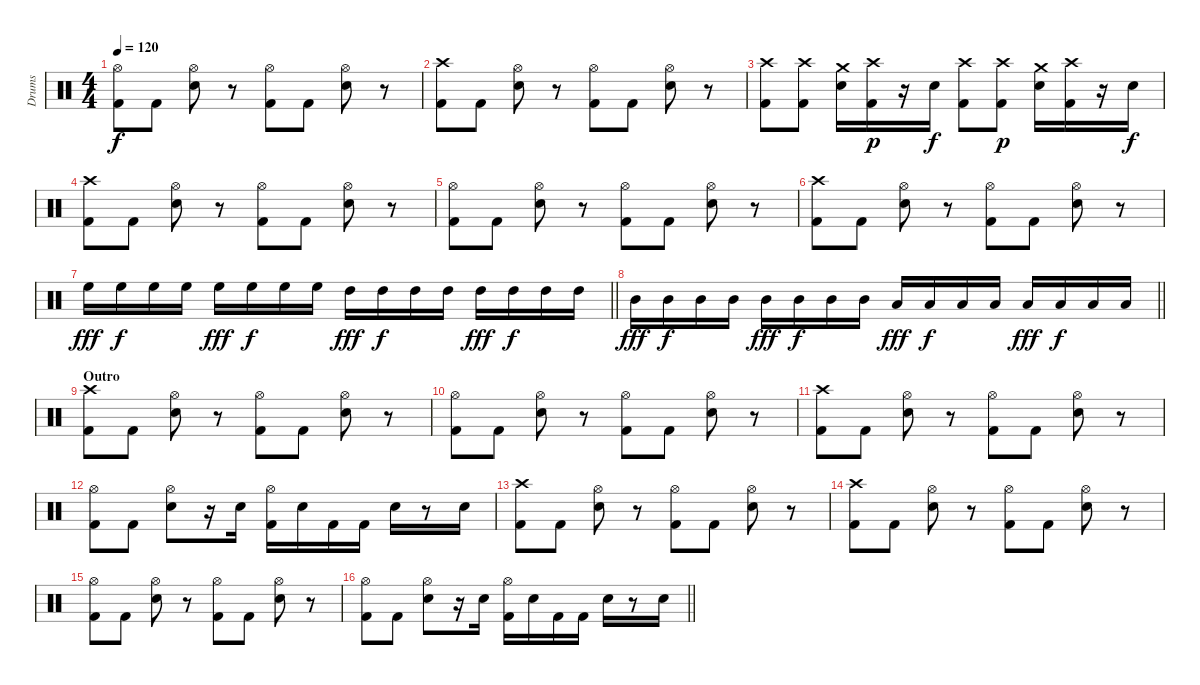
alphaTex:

\track ("Drums" "Drums") {instrument percussion}
\staff {score}
\articulation defaults
\ts (4 4)
\tempo 120
\clef neutral
\ks c
("Hi-Hat (open)" "Kick (hit) 2").8{dy f} "Kick (hit) 2".8 ("Hi-Hat (open)" "Snare (hit) 2").8 r.8 ("Hi-Hat (open)" "Kick (hit) 2").8 "Kick (hit) 2".8 ("Hi-Hat (open)" "Snare (hit) 2").8 r.8 |
("Crash high (hit)" "Kick (hit) 2").8 "Kick (hit) 2".8 ("Hi-Hat (open)" "Snare (hit) 2").8 r.8 ("Hi-Hat (open)" "Kick (hit) 2").8 "Kick (hit) 2".8 ("Hi-Hat (open)" "Snare (hit) 2").8 r.8 |
("Crash high (hit)" "Kick (hit) 2").8 ("Crash high (hit)" "Kick (hit) 2").8 ("Crash medium (hit)" "Snare (hit) 2").16 ("Crash high (hit)" "Kick (hit) 2").16{dy p} r.16 "Snare (hit) 2".16{dy f} ("Crash high (hit)" "Kick (hit) 2").8 ("Crash high (hit)" "Kick (hit) 2").8{dy p} ("Crash medium (hit)" "Snare (hit) 2").16 ("Crash high (hit)" "Kick (hit) 2").16 r.16 "Snare (hit) 2".16{dy f} |
("Crash high (hit)" "Kick (hit) 2").8 "Kick (hit) 2".8 ("Hi-Hat (open)" "Snare (hit) 2").8 r.8 ("Hi-Hat (open)" "Kick (hit) 2").8 "Kick (hit) 2".8 ("Hi-Hat (open)" "Snare (hit) 2").8 r.8 |
("Hi-Hat (open)" "Kick (hit) 2").8 "Kick (hit) 2".8 ("Hi-Hat (open)" "Snare (hit) 2").8 r.8 ("Hi-Hat (open)" "Kick (hit) 2").8 "Kick (hit) 2".8 ("Hi-Hat (open)" "Snare (hit) 2").8 r.8 |
("Crash high (hit)" "Kick (hit) 2").8 "Kick (hit) 2".8 ("Hi-Hat (open)" "Snare (hit) 2").8 r.8 ("Hi-Hat (open)" "Kick (hit) 2").8 "Kick (hit) 2".8 ("Hi-Hat (open)" "Snare (hit) 2").8 r.8 |
\barLineRight lightlight "High Floor Tom (hit)".16{dy fff} "High Floor Tom (hit)".16{dy f} "High Floor Tom (hit)".16 "High Floor Tom (hit)".16 "High Floor Tom (hit)".16{dy fff} "High Floor Tom (hit)".16{dy f} "High Floor Tom (hit)".16 "High Floor Tom (hit)".16 "High Tom (hit)".16{dy fff} "High Tom (hit)".16{dy f} "High Tom (hit)".16 "High Tom (hit)".16 "High Tom (hit)".16{dy fff} "High Tom (hit)".16{dy f} "High Tom (hit)".16 "High Tom (hit)".16
|
\barLineRight lightlight "Mid Tom (hit)".16{dy fff} "Mid Tom (hit)".16{dy f} "Mid Tom (hit)".16 "Mid Tom (hit)".16 "Mid Tom (hit)".16{dy fff} "Mid Tom (hit)".16{dy f} "Mid Tom (hit)".16 "Mid Tom (hit)".16 "Low Tom (hit)".16{dy fff} "Low Tom (hit)".16{dy f} "Low Tom (hit)".16 "Low Tom (hit)".16 "Low Tom (hit)".16{dy fff} "Low Tom (hit)".16{dy f} "Low Tom (hit)".16 "Low Tom (hit)".16
|
\section ("" "Outro")
("Crash high (hit)" "Kick (hit) 2").8 "Kick (hit) 2".8 ("Hi-Hat (open)" "Snare (hit) 2").8 r.8 ("Hi-Hat (open)" "Kick (hit) 2").8 "Kick (hit) 2".8 ("Hi-Hat (open)" "Snare (hit) 2").8 r.8 |
("Hi-Hat (open)" "Kick (hit) 2").8 "Kick (hit) 2".8 ("Hi-Hat (open)" "Snare (hit) 2").8 r.8 ("Hi-Hat (open)" "Kick (hit) 2").8 "Kick (hit) 2".8 ("Hi-Hat (open)" "Snare (hit) 2").8 r.8 |
("Crash high (hit)" "Kick (hit) 2").8 "Kick (hit) 2".8 ("Hi-Hat (open)" "Snare (hit) 2").8 r.8 ("Hi-Hat (open)" "Kick (hit) 2").8 "Kick (hit) 2".8 ("Hi-Hat (open)" "Snare (hit) 2").8 r.8 |
("Hi-Hat (open)" "Kick (hit) 2").8 "Kick (hit) 2".8 ("Hi-Hat (open)" "Snare (hit) 2").8 r.16 "Snare (hit) 2".16 ("Hi-Hat (open)" "Kick (hit) 2").16 "Snare (hit) 2".16 "Kick (hit) 2".16 "Kick (hit) 2".16 "Snare (hit) 2".16 r.8 "Snare (hit) 2".16 |
("Crash high (hit)" "Kick (hit) 2").8 "Kick (hit) 2".8 ("Hi-Hat (open)" "Snare (hit) 2").8 r.8 ("Hi-Hat (open)" "Kick (hit) 2").8 "Kick (hit) 2".8 ("Hi-Hat (open)" "Snare (hit) 2").8 r.8 |
("Crash high (hit)" "Kick (hit) 2").8 "Kick (hit) 2".8 ("Hi-Hat (open)" "Snare (hit) 2").8 r.8 ("Hi-Hat (open)" "Kick (hit) 2").8 "Kick (hit) 2".8 ("Hi-Hat (open)" "Snare (hit) 2").8 r.8 |
("Hi-Hat (open)" "Kick (hit) 2").8 "Kick (hit) 2".8 ("Hi-Hat (open)" "Snare (hit) 2").8 r.8 ("Hi-Hat (open)" "Kick (hit) 2").8 "Kick (hit) 2".8 ("Hi-Hat (open)" "Snare (hit) 2").8 r.8 |
\barLineRight lightlight
("Hi-Hat (open)" "Kick (hit) 2").8 "Kick (hit) 2".8 ("Hi-Hat (open)" "Snare (hit) 2").8 r.16 "Snare (hit) 2".16 ("Hi-Hat (open)" "Kick (hit) 2").16 "Snare (hit) 2".16 "Kick (hit) 2".16 "Kick (hit) 2".16 "Snare (hit) 2".16 r.8 "Snare (hit) 2".16
